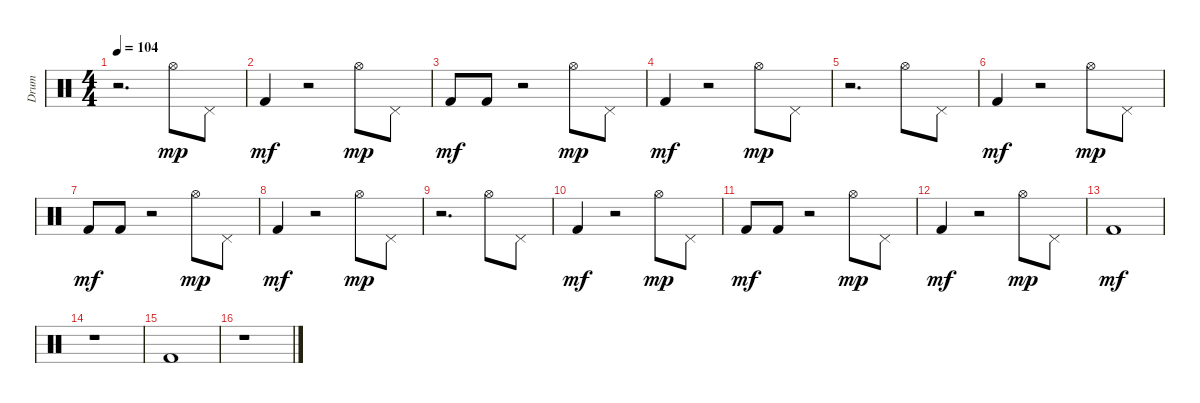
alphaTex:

\track ("Drum" "Drum") {instrument percussion}
\staff {score}
\articulation defaults
\ts (4 4)
\tempo 104
\clef neutral
\ks c
r.2{d dy mp} "Hi-Hat (open)".8 "Pedal Hi-Hat (hit)".8 |
"Kick (hit) 2".4{dy mf} r.2 "Hi-Hat (open)".8{dy mp} "Pedal Hi-Hat (hit)".8 |
"Kick (hit) 2".8{dy mf} "Kick (hit) 2".8 r.2 "Hi-Hat (open)".8{dy mp} "Pedal Hi-Hat (hit)".8 |
"Kick (hit) 2".4{dy mf} r.2 "Hi-Hat (open)".8{dy mp} "Pedal Hi-Hat (hit)".8 |
r.2{d} "Hi-Hat (open)".8 "Pedal Hi-Hat (hit)".8 |
"Kick (hit) 2".4{dy mf} r.2 "Hi-Hat (open)".8{dy mp} "Pedal Hi-Hat (hit)".8 |
"Kick (hit) 2".8{dy mf} "Kick (hit) 2".8 r.2 "Hi-Hat (open)".8{dy mp} "Pedal Hi-Hat (hit)".8 |
"Kick (hit) 2".4{dy mf} r.2 "Hi-Hat (open)".8{dy mp} "Pedal Hi-Hat (hit)".8 |
r.2{d} "Hi-Hat (open)".8 "Pedal Hi-Hat (hit)".8 |
"Kick (hit) 2".4{dy mf} r.2 "Hi-Hat (open)".8{dy mp} "Pedal Hi-Hat (hit)".8 |
"Kick (hit) 2".8{dy mf} "Kick (hit) 2".8 r.2 "Hi-Hat (open)".8{dy mp} "Pedal Hi-Hat (hit)".8 |
"Kick (hit) 2".4{dy mf} r.2 "Hi-Hat (open)".8{dy mp} "Pedal Hi-Hat (hit)".8 |
"Kick (hit) 2".1{dy mf} |
r.1 |
"Kick (hit) 2".1 |
r.1
